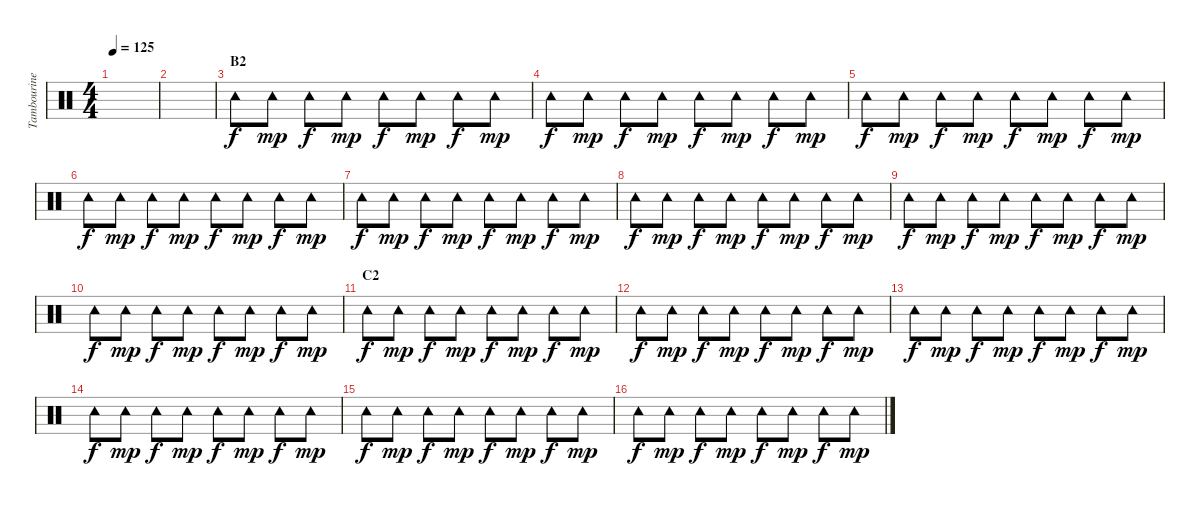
\track ("Tambourine" "Tambourine") {instrument percussion}
\staff {score}
\articulation defaults
\ts (4 4)
\tempo 125
\clef neutral
\ks c
|
|
\section ("" "B2")
"Tambourine (hit)".8 "Tambourine (hit)".8{dy mp} "Tambourine (hit)".8{dy f} "Tambourine (hit)".8{dy mp} "Tambourine (hit)".8{dy f} "Tambourine (hit)".8{dy mp} "Tambourine (hit)".8{dy f} "Tambourine (hit)".8{dy mp} |
"Tambourine (hit)".8{dy f} "Tambourine (hit)".8{dy mp} "Tambourine (hit)".8{dy f} "Tambourine (hit)".8{dy mp} "Tambourine (hit)".8{dy f} "Tambourine (hit)".8{dy mp} "Tambourine (hit)".8{dy f} "Tambourine (hit)".8{dy mp} |
"Tambourine (hit)".8{dy f} "Tambourine (hit)".8{dy mp} "Tambourine (hit)".8{dy f} "Tambourine (hit)".8{dy mp} "Tambourine (hit)".8{dy f} "Tambourine (hit)".8{dy mp} "Tambourine (hit)".8{dy f} "Tambourine (hit)".8{dy mp} |
"Tambourine (hit)".8{dy f} "Tambourine (hit)".8{dy mp} "Tambourine (hit)".8{dy f} "Tambourine (hit)".8{dy mp} "Tambourine (hit)".8{dy f} "Tambourine (hit)".8{dy mp} "Tambourine (hit)".8{dy f} "Tambourine (hit)".8{dy mp} |
"Tambourine (hit)".8{dy f} "Tambourine (hit)".8{dy mp} "Tambourine (hit)".8{dy f} "Tambourine (hit)".8{dy mp} "Tambourine (hit)".8{dy f} "Tambourine (hit)".8{dy mp} "Tambourine (hit)".8{dy f} "Tambourine (hit)".8{dy mp} |
"Tambourine (hit)".8{dy f} "Tambourine (hit)".8{dy mp} "Tambourine (hit)".8{dy f} "Tambourine (hit)".8{dy mp} "Tambourine (hit)".8{dy f} "Tambourine (hit)".8{dy mp} "Tambourine (hit)".8{dy f} "Tambourine (hit)".8{dy mp} |
"Tambourine (hit)".8{dy f} "Tambourine (hit)".8{dy mp} "Tambourine (hit)".8{dy f} "Tambourine (hit)".8{dy mp} "Tambourine (hit)".8{dy f} "Tambourine (hit)".8{dy mp} "Tambourine (hit)".8{dy f} "Tambourine (hit)".8{dy mp} |
"Tambourine (hit)".8{dy f} "Tambourine (hit)".8{dy mp} "Tambourine (hit)".8{dy f} "Tambourine (hit)".8{dy mp} "Tambourine (hit)".8{dy f} "Tambourine (hit)".8{dy mp} "Tambourine (hit)".8{dy f} "Tambourine (hit)".8{dy mp} |
\section ("" "C2")
"Tambourine (hit)".8{dy f} "Tambourine (hit)".8{dy mp} "Tambourine (hit)".8{dy f} "Tambourine (hit)".8{dy mp} "Tambourine (hit)".8{dy f} "Tambourine (hit)".8{dy mp} "Tambourine (hit)".8{dy f} "Tambourine (hit)".8{dy mp} |
"Tambourine (hit)".8{dy f} "Tambourine (hit)".8{dy mp} "Tambourine (hit)".8{dy f} "Tambourine (hit)".8{dy mp} "Tambourine (hit)".8{dy f} "Tambourine (hit)".8{dy mp} "Tambourine (hit)".8{dy f} "Tambourine (hit)".8{dy mp} |
"Tambourine (hit)".8{dy f} "Tambourine (hit)".8{dy mp} "Tambourine (hit)".8{dy f} "Tambourine (hit)".8{dy mp} "Tambourine (hit)".8{dy f} "Tambourine (hit)".8{dy mp} "Tambourine (hit)".8{dy f} "Tambourine (hit)".8{dy mp} |
"Tambourine (hit)".8{dy f} "Tambourine (hit)".8{dy mp} "Tambourine (hit)".8{dy f} "Tambourine (hit)".8{dy mp} "Tambourine (hit)".8{dy f} "Tambourine (hit)".8{dy mp} "Tambourine (hit)".8{dy f} "Tambourine (hit)".8{dy mp} |
"Tambourine (hit)".8{dy f} "Tambourine (hit)".8{dy mp} "Tambourine (hit)".8{dy f} "Tambourine (hit)".8{dy mp} "Tambourine (hit)".8{dy f} "Tambourine (hit)".8{dy mp} "Tambourine (hit)".8{dy f} "Tambourine (hit)".8{dy mp} |
"Tambourine (hit)".8{dy f} "Tambourine (hit)".8{dy mp} "Tambourine (hit)".8{dy f} "Tambourine (hit)".8{dy mp} "Tambourine (hit)".8{dy f} "Tambourine (hit)".8{dy mp} "Tambourine (hit)".8{dy f} "Tambourine (hit)".8{dy mp}
